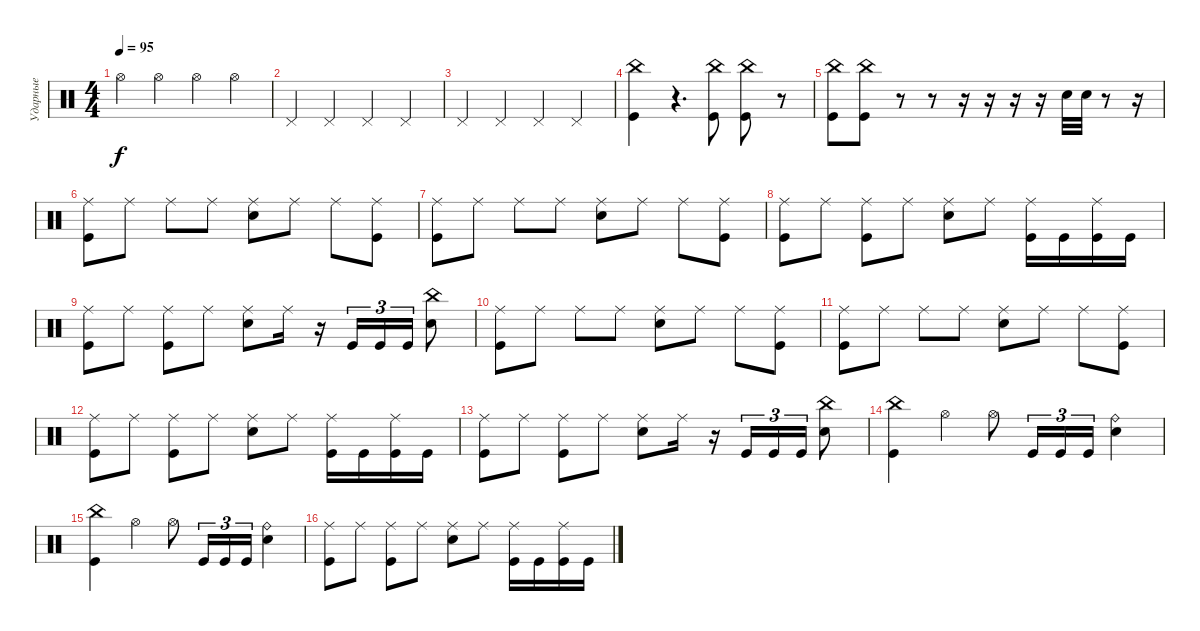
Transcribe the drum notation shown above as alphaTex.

\track ("Ударные" "Ударные") {instrument percussion}
\staff {score}
\articulation defaults
\ts (4 4)
\tempo 95
\tempo 135
\tempo 95
\clef neutral
\ks c "Hi-Hat (open)".4{dy f} "Hi-Hat (open)".4 "Hi-Hat (open)".4 "Hi-Hat (open)".4
|
"Pedal Hi-Hat (hit)".4 "Pedal Hi-Hat (hit)".4 "Pedal Hi-Hat (hit)".4 "Pedal Hi-Hat (hit)".4 |
"Pedal Hi-Hat (hit)".4 "Pedal Hi-Hat (hit)".4 "Pedal Hi-Hat (hit)".4 "Pedal Hi-Hat (hit)".4 |
("China (hit)" "Kick (hit)").4 r.4{d} ("China (hit)" "Kick (hit)").8 ("China (hit)" "Kick (hit)").8 r.8 |
("China (hit)" "Kick (hit)").8 ("China (hit)" "Kick (hit)").8 r.8 r.8 r.16 r.16 r.16 r.16 "Electric Snare (hit)".32 "Electric Snare (hit)".32 r.8 r.16 |
("Ride (middle)" "Kick (hit)").8 "Ride (middle)".8 "Ride (middle)".8 "Ride (middle)".8 ("Ride (middle)" "Electric Snare (hit)").8 "Ride (middle)".8 "Ride (middle)".8 ("Ride (middle)" "Kick (hit)").8 |
("Ride (middle)" "Kick (hit)").8 "Ride (middle)".8 "Ride (middle)".8 "Ride (middle)".8 ("Ride (middle)" "Electric Snare (hit)").8 "Ride (middle)".8 "Ride (middle)".8 ("Ride (middle)" "Kick (hit)").8 |
("Ride (middle)" "Kick (hit)").8 "Ride (middle)".8 ("Ride (middle)" "Kick (hit)").8 "Ride (middle)".8 ("Ride (middle)" "Electric Snare (hit)").8 "Ride (middle)".8 ("Ride (middle)" "Kick (hit)").16 "Kick (hit)".16 ("Ride (middle)" "Kick (hit)").16 "Kick (hit)".16 |
("Ride (middle)" "Kick (hit)").8 "Ride (middle)".8 ("Ride (middle)" "Kick (hit)").8 "Ride (middle)".8 ("Ride (middle)" "Electric Snare (hit)").8 "Ride (middle)".16 r.16 "Kick (hit)".16{tu (3 2)} "Kick (hit)".16{tu (3 2)} "Kick (hit)".16{tu (3 2)} ("China (hit)" "Electric Snare (hit)").8 |
("Ride (middle)" "Kick (hit)").8 "Ride (middle)".8 "Ride (middle)".8 "Ride (middle)".8 ("Ride (middle)" "Electric Snare (hit)").8 "Ride (middle)".8 "Ride (middle)".8 ("Ride (middle)" "Kick (hit)").8 |
("Ride (middle)" "Kick (hit)").8 "Ride (middle)".8 "Ride (middle)".8 "Ride (middle)".8 ("Ride (middle)" "Electric Snare (hit)").8 "Ride (middle)".8 "Ride (middle)".8 ("Ride (middle)" "Kick (hit)").8 |
("Ride (middle)" "Kick (hit)").8 "Ride (middle)".8 ("Ride (middle)" "Kick (hit)").8 "Ride (middle)".8 ("Ride (middle)" "Electric Snare (hit)").8 "Ride (middle)".8 ("Ride (middle)" "Kick (hit)").16 "Kick (hit)".16 ("Ride (middle)" "Kick (hit)").16 "Kick (hit)".16 |
("Ride (middle)" "Kick (hit)").8 "Ride (middle)".8 ("Ride (middle)" "Kick (hit)").8 "Ride (middle)".8 ("Ride (middle)" "Electric Snare (hit)").8 "Ride (middle)".16 r.16 "Kick (hit)".16{tu (3 2)} "Kick (hit)".16{tu (3 2)} "Kick (hit)".16{tu (3 2)} ("China (hit)" "Electric Snare (hit)").8 |
("China (hit)" "Kick (hit)").4 "Hi-Hat (open)".4 "Hi-Hat (open)".8 "Kick (hit)".16{tu (3 2)} "Kick (hit)".16{tu (3 2)} "Kick (hit)".16{tu (3 2)} ("Electric Snare (hit)" "Ride (bell)").4 |
("China (hit)" "Kick (hit)").4 "Hi-Hat (open)".4 "Hi-Hat (open)".8 "Kick (hit)".16{tu (3 2)} "Kick (hit)".16{tu (3 2)} "Kick (hit)".16{tu (3 2)} ("Electric Snare (hit)" "Ride (bell)").4 |
("Ride (middle)" "Kick (hit)").8 "Ride (middle)".8 ("Ride (middle)" "Kick (hit)").8 "Ride (middle)".8 ("Ride (middle)" "Electric Snare (hit)").8 "Ride (middle)".8 ("Ride (middle)" "Kick (hit)").16 "Kick (hit)".16 ("Ride (middle)" "Kick (hit)").16 "Kick (hit)".16
